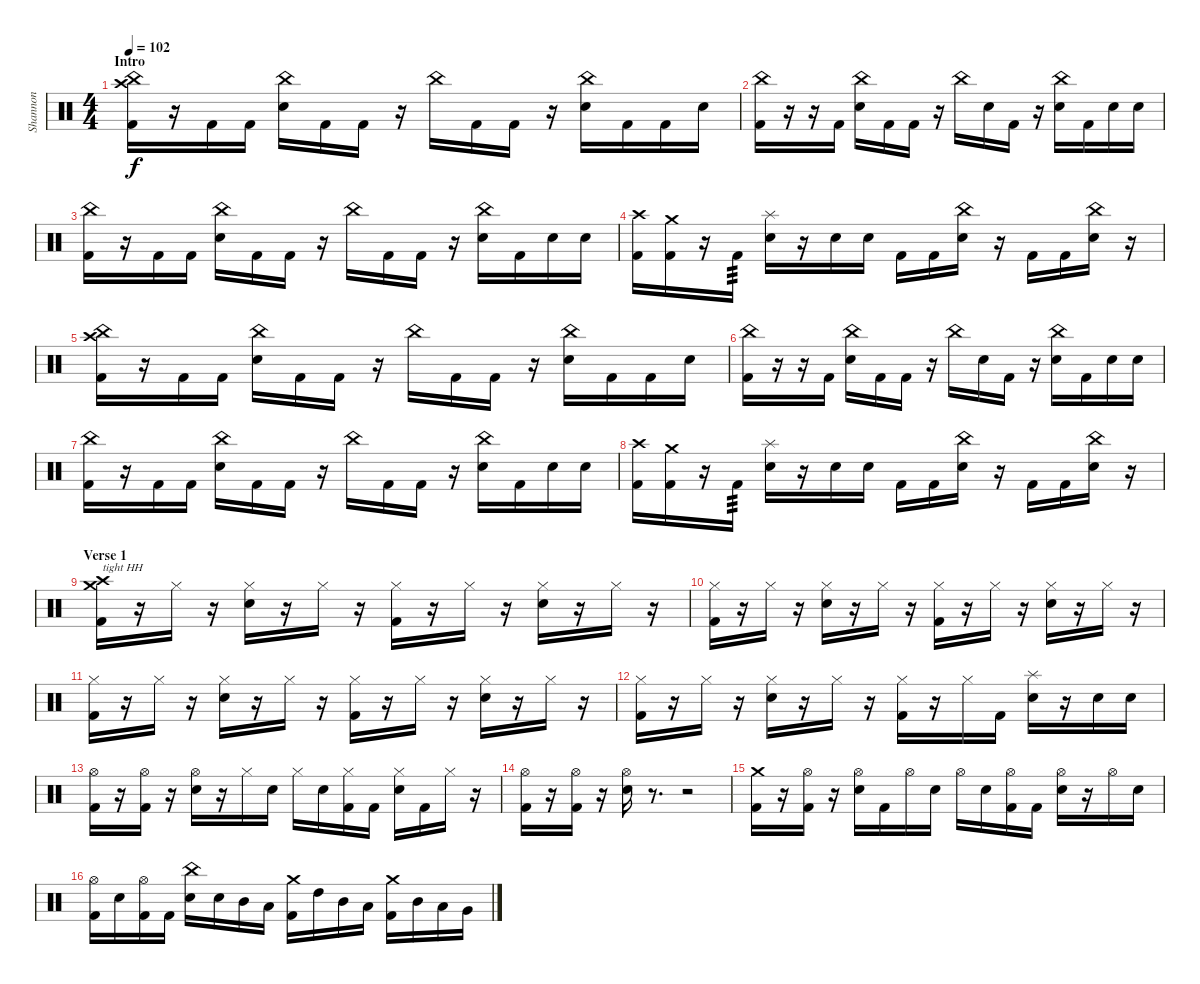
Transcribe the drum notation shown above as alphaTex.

\track ("Shannon" "Shannon") {instrument percussion}
\staff {score}
\articulation defaults
\ts (4 4)
\section ("" "Intro")
\tempo 102
\clef neutral
\ks c
("China (hit)" "Crash high (hit)" "Kick (hit) 2").16{dy f} r.16 "Kick (hit) 2".16 "Kick (hit) 2".16 ("China (hit)" "Electric Snare (hit)").16 "Kick (hit) 2".16 "Kick (hit) 2".16 r.16 "China (hit)".16 "Kick (hit) 2".16 "Kick (hit) 2".16 r.16 ("China (hit)" "Electric Snare (hit)").16 "Kick (hit) 2".16 "Kick (hit) 2".16 "Electric Snare (hit)".16 |
("China (hit)" "Kick (hit) 2").16 r.16 r.16 "Kick (hit) 2".16 ("China (hit)" "Electric Snare (hit)").16 "Kick (hit) 2".16 "Kick (hit) 2".16 r.16 "China (hit)".16 "Electric Snare (hit)".16 "Kick (hit) 2".16 r.16 ("China (hit)" "Electric Snare (hit)").16 "Kick (hit) 2".16 "Electric Snare (hit)".16 "Electric Snare (hit)".16 |
("China (hit)" "Kick (hit) 2").16 r.16 "Kick (hit) 2".16 "Kick (hit) 2".16 ("China (hit)" "Electric Snare (hit)").16 "Kick (hit) 2".16 "Kick (hit) 2".16 r.16 "China (hit)".16 "Kick (hit) 2".16 "Kick (hit) 2".16 r.16 ("China (hit)" "Electric Snare (hit)").16 "Kick (hit) 2".16 "Electric Snare (hit)".16 "Electric Snare (hit)".16 |
("Crash high (hit)" "Kick (hit) 2").16 ("Crash medium (hit)" "Kick (hit) 2").16 r.16 "Kick (hit) 2".16{tp 3} ("Splash (hit)" "Electric Snare (hit)").16 r.16 "Electric Snare (hit)".16 "Electric Snare (hit)".16 "Kick (hit) 2".16 "Kick (hit) 2".16 ("China (hit)" "Electric Snare (hit)").16 r.16 "Kick (hit) 2".16 "Kick (hit) 2".16 ("China (hit)" "Electric Snare (hit)").16 r.16 |
("China (hit)" "Crash high (hit)" "Kick (hit) 2").16 r.16 "Kick (hit) 2".16 "Kick (hit) 2".16 ("China (hit)" "Electric Snare (hit)").16 "Kick (hit) 2".16 "Kick (hit) 2".16 r.16 "China (hit)".16 "Kick (hit) 2".16 "Kick (hit) 2".16 r.16 ("China (hit)" "Electric Snare (hit)").16 "Kick (hit) 2".16 "Kick (hit) 2".16 "Electric Snare (hit)".16 |
("China (hit)" "Kick (hit) 2").16 r.16 r.16 "Kick (hit) 2".16 ("China (hit)" "Electric Snare (hit)").16 "Kick (hit) 2".16 "Kick (hit) 2".16 r.16 "China (hit)".16 "Electric Snare (hit)".16 "Kick (hit) 2".16 r.16 ("China (hit)" "Electric Snare (hit)").16 "Kick (hit) 2".16 "Electric Snare (hit)".16 "Electric Snare (hit)".16 |
("China (hit)" "Kick (hit) 2").16 r.16 "Kick (hit) 2".16 "Kick (hit) 2".16 ("China (hit)" "Electric Snare (hit)").16 "Kick (hit) 2".16 "Kick (hit) 2".16 r.16 "China (hit)".16 "Kick (hit) 2".16 "Kick (hit) 2".16 r.16 ("China (hit)" "Electric Snare (hit)").16 "Kick (hit) 2".16 "Electric Snare (hit)".16 "Electric Snare (hit)".16 |
("Crash high (hit)" "Kick (hit) 2").16 ("Crash medium (hit)" "Kick (hit) 2").16 r.16 "Kick (hit) 2".16{tp 3} ("Splash (hit)" "Electric Snare (hit)").16 r.16 "Electric Snare (hit)".16 "Electric Snare (hit)".16 "Kick (hit) 2".16 "Kick (hit) 2".16 ("China (hit)" "Electric Snare (hit)").16 r.16 "Kick (hit) 2".16 "Kick (hit) 2".16 ("China (hit)" "Electric Snare (hit)").16 r.16 |
\section ("" "Verse 1")
("Crash high (hit)" "Crash medium (hit)" "Kick (hit) 2").16{txt "tight HH"} r.16 "Hi-Hat (closed)".16 r.16 ("Hi-Hat (closed)" "Electric Snare (hit)").16 r.16 "Hi-Hat (closed)".16 r.16 ("Hi-Hat (closed)" "Kick (hit) 2").16 r.16 "Hi-Hat (closed)".16 r.16 ("Hi-Hat (closed)" "Electric Snare (hit)").16 r.16 "Hi-Hat (closed)".16 r.16 |
("Hi-Hat (closed)" "Kick (hit) 2").16 r.16 "Hi-Hat (closed)".16 r.16 ("Hi-Hat (closed)" "Electric Snare (hit)").16 r.16 "Hi-Hat (closed)".16 r.16 ("Hi-Hat (closed)" "Kick (hit) 2").16 r.16 "Hi-Hat (closed)".16 r.16 ("Hi-Hat (closed)" "Electric Snare (hit)").16 r.16 "Hi-Hat (closed)".16 r.16 |
("Hi-Hat (closed)" "Kick (hit) 2").16 r.16 "Hi-Hat (closed)".16 r.16 ("Hi-Hat (closed)" "Electric Snare (hit)").16 r.16 "Hi-Hat (closed)".16 r.16 ("Hi-Hat (closed)" "Kick (hit) 2").16 r.16 "Hi-Hat (closed)".16 r.16 ("Hi-Hat (closed)" "Electric Snare (hit)").16 r.16 "Hi-Hat (closed)".16 r.16 |
("Hi-Hat (closed)" "Kick (hit) 2").16 r.16 "Hi-Hat (closed)".16 r.16 ("Hi-Hat (closed)" "Electric Snare (hit)").16 r.16 "Hi-Hat (closed)".16 r.16 ("Hi-Hat (closed)" "Kick (hit) 2").16 r.16 "Hi-Hat (closed)".16 "Kick (hit) 2".16 ("Splash (hit)" "Electric Snare (hit)").16 r.16 "Electric Snare (hit)".16 "Electric Snare (hit)".16 |
("Hi-Hat (open)" "Kick (hit) 2").16 r.16 ("Hi-Hat (open)" "Kick (hit) 2").16 r.16 ("Hi-Hat (open)" "Electric Snare (hit)").16 r.16 "Hi-Hat (closed)".16 "Electric Snare (hit)".16 "Hi-Hat (closed)".16 "Electric Snare (hit)".16 ("Hi-Hat (closed)" "Kick (hit) 2").16 "Kick (hit) 2".16 ("Hi-Hat (closed)" "Electric Snare (hit)").16 "Kick (hit) 2".16 "Hi-Hat (closed)".16 r.16 |
("Hi-Hat (open)" "Kick (hit) 2").16 r.16 ("Hi-Hat (open)" "Kick (hit) 2").16 r.16 ("Hi-Hat (open)" "Electric Snare (hit)").16 r.8{d} r.2 |
("Crash medium (hit)" "Kick (hit) 2").16 r.16 ("Hi-Hat (open)" "Kick (hit) 2").16 r.16 ("Hi-Hat (open)" "Electric Snare (hit)").16 "Kick (hit) 2".16 "Hi-Hat (open)".16 "Electric Snare (hit)".16 "Hi-Hat (open)".16 "Electric Snare (hit)".16 ("Hi-Hat (open)" "Kick (hit) 2").16 "Kick (hit) 2".16 ("Hi-Hat (open)" "Electric Snare (hit)").16 r.16 "Hi-Hat (open)".16 "Electric Snare (hit)".16 |
("Hi-Hat (open)" "Kick (hit) 2").16 "Electric Snare (hit)".16 ("Hi-Hat (open)" "Kick (hit) 2").16 "Kick (hit) 2".16 ("China (hit)" "Electric Snare (hit)").16 "Electric Snare (hit)".16 "Mid Tom (hit)".16 "Low Tom (hit)".16 ("Crash medium (hit)" "Kick (hit) 2").16 "High Tom (hit)".16 "Mid Tom (hit)".16 "Low Tom (hit)".16 ("Crash medium (hit)" "Kick (hit) 2").16 "Mid Tom (hit)".16 "Low Tom (hit)".16 "Very Low Tom (hit)".16
